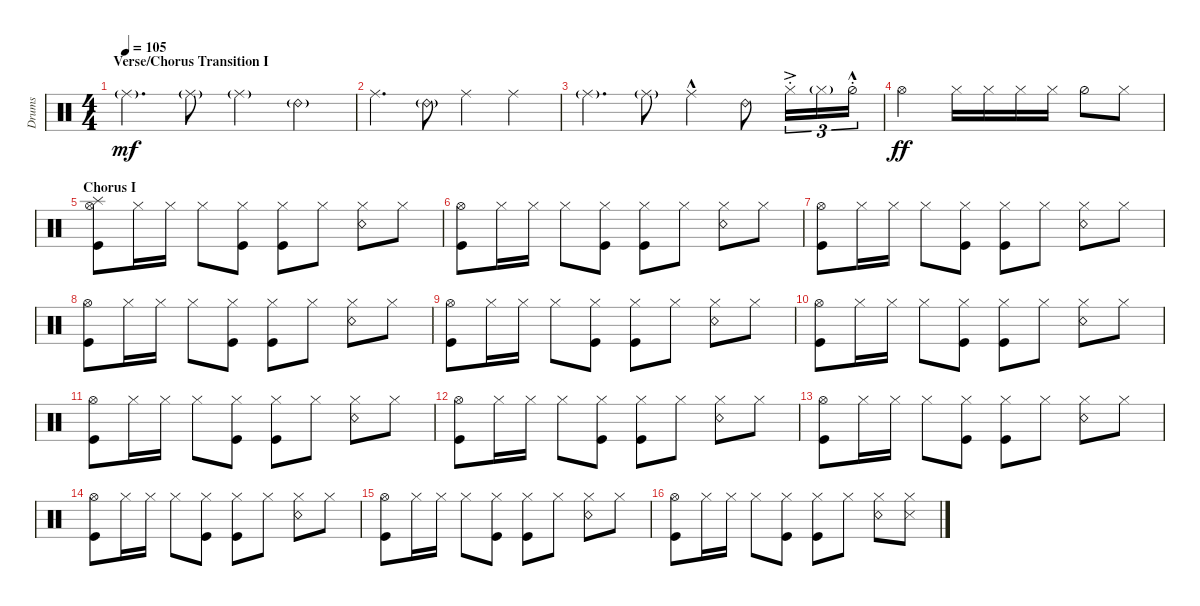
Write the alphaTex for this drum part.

\defaultSystemsLayout 4
\otherSystemsTrackNameOrientation horizontal
\chordDiagramsInScore
\track ("Drumkit" "Drums") {instrument percussion}
\staff {score}
\articulation defaults
\ts (4 4)
\section ("" "Verse/Chorus Transition I")
\tempo 105
\clef neutral
\scale
0.5
\ks c "Ride (middle)"{g}.4{d dy mf} "Ride (middle)"{g}.8 "Ride (middle)"{g}.4 "Ride (bell) 2"{g}.4
|
\scale
0.5 "Ride (middle)".4{d} "Ride (bell) 2"{g}.8 "Ride (middle)".4 "Ride (middle)".4 |
\scale
0.5 "Ride (middle)"{g}.4{d} "Ride (middle)"{g}.8 "Ride (middle)"{hac}.4 "Ride (bell) 2".8 "Hi-Hat (closed)"{ac st}.16{tu (3 2)} "Hi-Hat (closed)"{g}.16{tu (3 2)} "Hi-Hat (half)"{hac st}.16{tu (3 2)} |
\scale
0.5 "Hi-Hat (open)".2{dy ff} "Hi-Hat (closed)".16 "Hi-Hat (closed)".16 "Hi-Hat (closed)".16 "Hi-Hat (closed)".16 "Hi-Hat (half)".8 "Hi-Hat (closed)".8 |
\section ("" "Chorus I")
\scale
0.5 ("Kick (hit)" "Hi-Hat (open)" "Splash (hit)").8 "Hi-Hat (closed)".16 "Hi-Hat (closed)".16 "Hi-Hat (closed)".8 ("Kick (hit)" "Hi-Hat (closed)").8 ("Kick (hit)" "Hi-Hat (closed)").8 "Hi-Hat (closed)".8 ("Snare (rim shot)" "Hi-Hat (closed)").8 "Hi-Hat (closed)".8 |
\scale
0.5 ("Kick (hit)" "Hi-Hat (open)").8 "Hi-Hat (closed)".16 "Hi-Hat (closed)".16 "Hi-Hat (closed)".8 ("Kick (hit)" "Hi-Hat (closed)").8 ("Kick (hit)" "Hi-Hat (closed)").8 "Hi-Hat (closed)".8 ("Snare (rim shot)" "Hi-Hat (closed)").8 "Hi-Hat (closed)".8 |
\scale
0.5 ("Kick (hit)" "Hi-Hat (open)").8 "Hi-Hat (closed)".16 "Hi-Hat (closed)".16 "Hi-Hat (closed)".8 ("Kick (hit)" "Hi-Hat (closed)").8 ("Kick (hit)" "Hi-Hat (closed)").8 "Hi-Hat (closed)".8 ("Snare (rim shot)" "Hi-Hat (closed)").8 "Hi-Hat (closed)".8 |
\scale
0.5 ("Kick (hit)" "Hi-Hat (open)").8 "Hi-Hat (closed)".16 "Hi-Hat (closed)".16 "Hi-Hat (closed)".8 ("Kick (hit)" "Hi-Hat (closed)").8 ("Kick (hit)" "Hi-Hat (closed)").8 "Hi-Hat (closed)".8 ("Snare (rim shot)" "Hi-Hat (closed)").8 "Hi-Hat (closed)".8 |
\scale
0.5 ("Kick (hit)" "Hi-Hat (open)").8 "Hi-Hat (closed)".16 "Hi-Hat (closed)".16 "Hi-Hat (closed)".8 ("Kick (hit)" "Hi-Hat (closed)").8 ("Kick (hit)" "Hi-Hat (closed)").8 "Hi-Hat (closed)".8 ("Snare (rim shot)" "Hi-Hat (closed)").8 "Hi-Hat (closed)".8 |
\scale
0.5 ("Kick (hit)" "Hi-Hat (open)").8 "Hi-Hat (closed)".16 "Hi-Hat (closed)".16 "Hi-Hat (closed)".8 ("Kick (hit)" "Hi-Hat (closed)").8 ("Kick (hit)" "Hi-Hat (closed)").8 "Hi-Hat (closed)".8 ("Snare (rim shot)" "Hi-Hat (closed)").8 "Hi-Hat (closed)".8 |
\scale
0.5 ("Kick (hit)" "Hi-Hat (open)").8 "Hi-Hat (closed)".16 "Hi-Hat (closed)".16 "Hi-Hat (closed)".8 ("Kick (hit)" "Hi-Hat (closed)").8 ("Kick (hit)" "Hi-Hat (closed)").8 "Hi-Hat (closed)".8 ("Snare (rim shot)" "Hi-Hat (closed)").8 "Hi-Hat (closed)".8 |
\scale
0.5 ("Kick (hit)" "Hi-Hat (open)").8 "Hi-Hat (closed)".16 "Hi-Hat (closed)".16 "Hi-Hat (closed)".8 ("Kick (hit)" "Hi-Hat (closed)").8 ("Kick (hit)" "Hi-Hat (closed)").8 "Hi-Hat (closed)".8 ("Snare (rim shot)" "Hi-Hat (closed)").8 "Hi-Hat (closed)".8 |
\scale
0.5 ("Kick (hit)" "Hi-Hat (open)").8 "Hi-Hat (closed)".16 "Hi-Hat (closed)".16 "Hi-Hat (closed)".8 ("Kick (hit)" "Hi-Hat (closed)").8 ("Kick (hit)" "Hi-Hat (closed)").8 "Hi-Hat (closed)".8 ("Snare (rim shot)" "Hi-Hat (closed)").8 "Hi-Hat (closed)".8 |
\scale
0.5 ("Kick (hit)" "Hi-Hat (open)").8 "Hi-Hat (closed)".16 "Hi-Hat (closed)".16 "Hi-Hat (closed)".8 ("Kick (hit)" "Hi-Hat (closed)").8 ("Kick (hit)" "Hi-Hat (closed)").8 "Hi-Hat (closed)".8 ("Snare (rim shot)" "Hi-Hat (closed)").8 "Hi-Hat (closed)".8 |
\scale
0.5 ("Kick (hit)" "Hi-Hat (open)").8 "Hi-Hat (closed)".16 "Hi-Hat (closed)".16 "Hi-Hat (closed)".8 ("Kick (hit)" "Hi-Hat (closed)").8 ("Kick (hit)" "Hi-Hat (closed)").8 "Hi-Hat (closed)".8 ("Snare (rim shot)" "Hi-Hat (closed)").8 "Hi-Hat (closed)".8 |
\scale
0.5 ("Kick (hit)" "Hi-Hat (open)").8 "Hi-Hat (closed)".16 "Hi-Hat (closed)".16 "Hi-Hat (closed)".8 ("Kick (hit)" "Hi-Hat (closed)").8 ("Kick (hit)" "Hi-Hat (closed)").8 "Hi-Hat (closed)".8 ("Snare (rim shot)" "Hi-Hat (closed)").8 ("Hi-Hat (closed)" "Snare (side stick) 3").8
